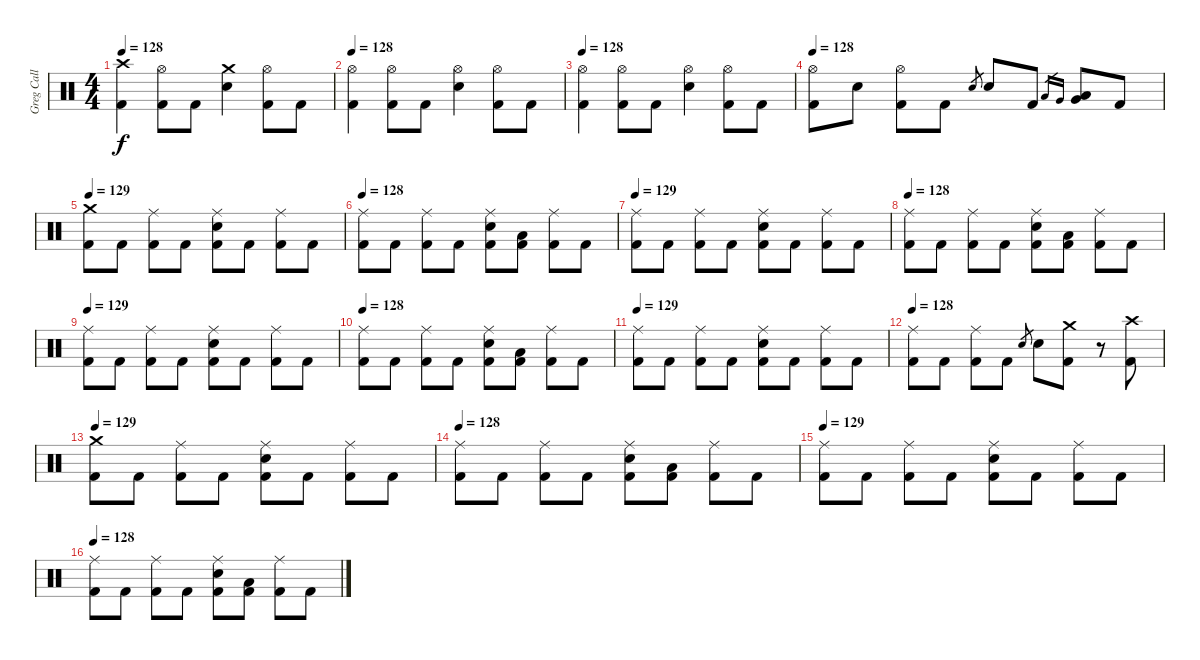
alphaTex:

\track ("Greg Call (Drums)" "Greg Call ") {instrument percussion}
\staff {score}
\articulation defaults
\ts (4 4)
\tempo 128
\clef neutral
\ks c
("Crash high (hit)" "Kick (hit) 2").4{dy f} ("Hi-Hat (open)" "Kick (hit) 2").8 "Kick (hit) 2".8 ("Crash medium (hit)" "Snare (hit) 2").4 ("Hi-Hat (open)" "Kick (hit) 2").8 "Kick (hit) 2".8 |
\tempo 128
("Hi-Hat (open)" "Kick (hit) 2").4 ("Hi-Hat (open)" "Kick (hit) 2").8 "Kick (hit) 2".8 ("Hi-Hat (open)" "Snare (hit) 2").4 ("Hi-Hat (open)" "Kick (hit) 2").8 "Kick (hit) 2".8 |
\tempo 128
("Hi-Hat (open)" "Kick (hit) 2").4 ("Hi-Hat (open)" "Kick (hit) 2").8 "Kick (hit) 2".8 ("Hi-Hat (open)" "Snare (hit) 2").4 ("Hi-Hat (open)" "Kick (hit) 2").8 "Kick (hit) 2".8 |
\tempo 128
("Hi-Hat (open)" "Kick (hit) 2").8 "Snare (hit) 2".8 ("Kick (hit) 2" "Hi-Hat (open)").8 "Kick (hit) 2".8 "Snare (hit) 2".8{gr} "Snare (hit) 2".8 "Kick (hit) 2".8 "Low Floor Tom (hit)".16{gr} "Very Low Tom (hit)".16{gr} ("Low Floor Tom (hit)" "Very Low Tom (hit)").8 "Kick (hit) 2".8 |
\tempo 129
("Crash medium (hit)" "Kick (hit) 2").8 "Kick (hit) 2".8 ("Ride (middle)" "Kick (hit) 2").8 "Kick (hit) 2".8 ("Ride (middle)" "Snare (hit) 2" "Kick (hit) 2").8 "Kick (hit) 2".8 ("Ride (middle)" "Kick (hit) 2").8 "Kick (hit) 2".8 |
\tempo 128
("Ride (middle)" "Kick (hit) 2").8 "Kick (hit) 2".8 ("Ride (middle)" "Kick (hit) 2").8 "Kick (hit) 2".8 ("Ride (middle)" "Snare (hit) 2" "Kick (hit) 2").8 ("Low Tom (hit)" "Kick (hit) 2").8 ("Ride (middle)" "Kick (hit) 2").8 "Kick (hit) 2".8 |
\tempo 129
("Ride (middle)" "Kick (hit) 2").8 "Kick (hit) 2".8 ("Ride (middle)" "Kick (hit) 2").8 "Kick (hit) 2".8 ("Ride (middle)" "Snare (hit) 2" "Kick (hit) 2").8 "Kick (hit) 2".8 ("Ride (middle)" "Kick (hit) 2").8 "Kick (hit) 2".8 |
\tempo 128
("Ride (middle)" "Kick (hit) 2").8 "Kick (hit) 2".8 ("Ride (middle)" "Kick (hit) 2").8 "Kick (hit) 2".8 ("Ride (middle)" "Snare (hit) 2" "Kick (hit) 2").8 ("Low Tom (hit)" "Kick (hit) 2").8 ("Ride (middle)" "Kick (hit) 2").8 "Kick (hit) 2".8 |
\tempo 129
("Ride (middle)" "Kick (hit) 2").8 "Kick (hit) 2".8 ("Ride (middle)" "Kick (hit) 2").8 "Kick (hit) 2".8 ("Ride (middle)" "Snare (hit) 2" "Kick (hit) 2").8 "Kick (hit) 2".8 ("Ride (middle)" "Kick (hit) 2").8 "Kick (hit) 2".8 |
\tempo 128
("Ride (middle)" "Kick (hit) 2").8 "Kick (hit) 2".8 ("Ride (middle)" "Kick (hit) 2").8 "Kick (hit) 2".8 ("Ride (middle)" "Snare (hit) 2" "Kick (hit) 2").8 ("Low Tom (hit)" "Kick (hit) 2").8 ("Ride (middle)" "Kick (hit) 2").8 "Kick (hit) 2".8 |
\tempo 129
("Ride (middle)" "Kick (hit) 2").8 "Kick (hit) 2".8 ("Ride (middle)" "Kick (hit) 2").8 "Kick (hit) 2".8 ("Ride (middle)" "Snare (hit) 2" "Kick (hit) 2").8 "Kick (hit) 2".8 ("Ride (middle)" "Kick (hit) 2").8 "Kick (hit) 2".8 |
\tempo 128
("Ride (middle)" "Kick (hit) 2").8 "Kick (hit) 2".8 ("Ride (middle)" "Kick (hit) 2").8 "Kick (hit) 2".8 "Snare (hit) 2".8{gr} "Snare (hit) 2".8 ("Crash medium (hit)" "Kick (hit) 2").8 r.8{volume 0} ("Crash high (hit)" "Kick (hit) 2").8{volume 16} |
\tempo 129
("Crash medium (hit)" "Kick (hit) 2").8 "Kick (hit) 2".8 ("Ride (middle)" "Kick (hit) 2").8 "Kick (hit) 2".8 ("Ride (middle)" "Snare (hit) 2" "Kick (hit) 2").8 "Kick (hit) 2".8 ("Ride (middle)" "Kick (hit) 2").8 "Kick (hit) 2".8 |
\tempo 128
("Ride (middle)" "Kick (hit) 2").8 "Kick (hit) 2".8 ("Ride (middle)" "Kick (hit) 2").8 "Kick (hit) 2".8 ("Ride (middle)" "Snare (hit) 2" "Kick (hit) 2").8 ("Low Tom (hit)" "Kick (hit) 2").8 ("Ride (middle)" "Kick (hit) 2").8 "Kick (hit) 2".8 |
\tempo 129
("Ride (middle)" "Kick (hit) 2").8 "Kick (hit) 2".8 ("Ride (middle)" "Kick (hit) 2").8 "Kick (hit) 2".8 ("Ride (middle)" "Snare (hit) 2" "Kick (hit) 2").8 "Kick (hit) 2".8 ("Ride (middle)" "Kick (hit) 2").8 "Kick (hit) 2".8 |
\tempo 128
("Ride (middle)" "Kick (hit) 2").8 "Kick (hit) 2".8 ("Ride (middle)" "Kick (hit) 2").8 "Kick (hit) 2".8 ("Ride (middle)" "Snare (hit) 2" "Kick (hit) 2").8 ("Low Tom (hit)" "Kick (hit) 2").8 ("Ride (middle)" "Kick (hit) 2").8 "Kick (hit) 2".8
